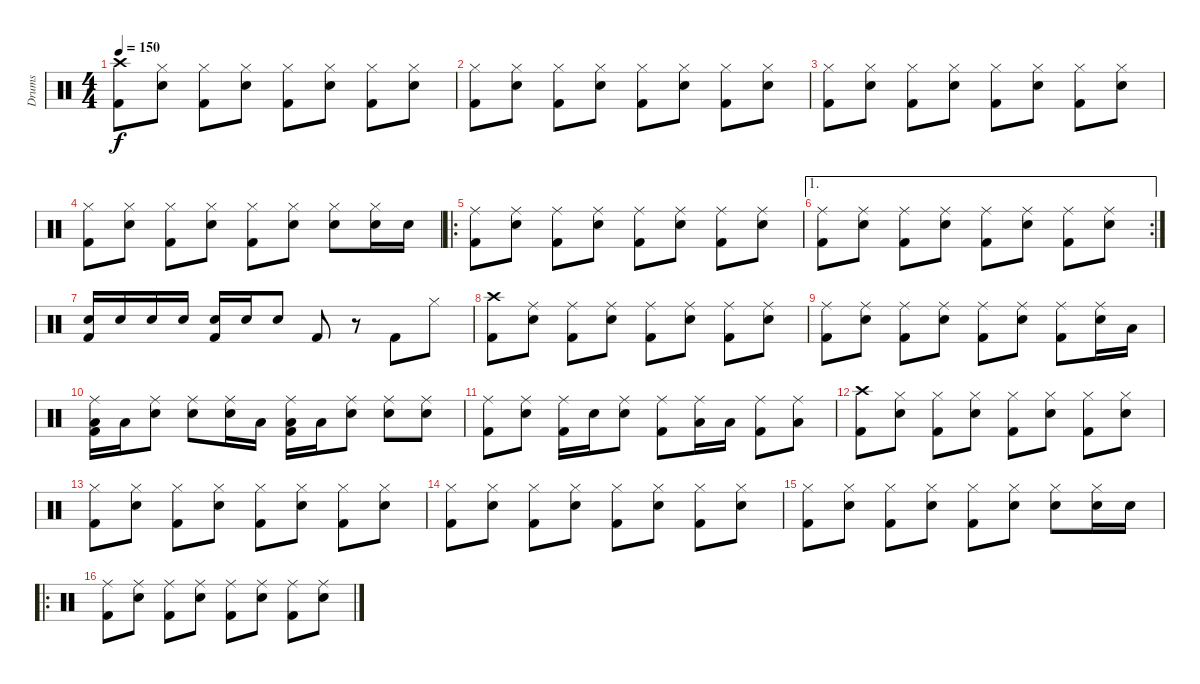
\track ("Drums" "Drums") {instrument percussion}
\staff {score}
\articulation defaults
\ts (4 4)
\tempo 150
\clef neutral
\ks c
("Crash high (hit)" "Kick (hit) 2").8{dy f} ("Hi-Hat (closed)" "Snare (hit) 2").8 ("Hi-Hat (closed)" "Kick (hit) 2").8 ("Hi-Hat (closed)" "Snare (hit) 2").8 ("Hi-Hat (closed)" "Kick (hit) 2").8 ("Hi-Hat (closed)" "Snare (hit) 2").8 ("Hi-Hat (closed)" "Kick (hit) 2").8 ("Hi-Hat (closed)" "Snare (hit) 2").8 |
("Hi-Hat (closed)" "Kick (hit) 2").8 ("Hi-Hat (closed)" "Snare (hit) 2").8 ("Hi-Hat (closed)" "Kick (hit) 2").8 ("Hi-Hat (closed)" "Snare (hit) 2").8 ("Hi-Hat (closed)" "Kick (hit) 2").8 ("Hi-Hat (closed)" "Snare (hit) 2").8 ("Hi-Hat (closed)" "Kick (hit) 2").8 ("Hi-Hat (closed)" "Snare (hit) 2").8 |
("Hi-Hat (closed)" "Kick (hit) 2").8 ("Hi-Hat (closed)" "Snare (hit) 2").8 ("Hi-Hat (closed)" "Kick (hit) 2").8 ("Hi-Hat (closed)" "Snare (hit) 2").8 ("Hi-Hat (closed)" "Kick (hit) 2").8 ("Hi-Hat (closed)" "Snare (hit) 2").8 ("Hi-Hat (closed)" "Kick (hit) 2").8 ("Hi-Hat (closed)" "Snare (hit) 2").8 |
("Hi-Hat (closed)" "Kick (hit) 2").8 ("Hi-Hat (closed)" "Snare (hit) 2").8 ("Hi-Hat (closed)" "Kick (hit) 2").8 ("Hi-Hat (closed)" "Snare (hit) 2").8 ("Hi-Hat (closed)" "Kick (hit) 2").8 ("Hi-Hat (closed)" "Snare (hit) 2").8 ("Hi-Hat (closed)" "Snare (hit) 2").8 ("Hi-Hat (closed)" "Snare (hit) 2").16 "Snare (hit) 2".16 |
\ro
("Ride (middle)" "Kick (hit) 2").8 ("Ride (middle)" "Snare (hit) 2").8 ("Ride (middle)" "Kick (hit) 2").8 ("Ride (middle)" "Snare (hit) 2").8 ("Ride (middle)" "Kick (hit) 2").8 ("Ride (middle)" "Snare (hit) 2").8 ("Ride (middle)" "Kick (hit) 2").8 ("Ride (middle)" "Snare (hit) 2").8 |
\ae 1
\rc 2
("Ride (middle)" "Kick (hit) 2").8 ("Ride (middle)" "Snare (hit) 2").8 ("Ride (middle)" "Kick (hit) 2").8 ("Ride (middle)" "Snare (hit) 2").8 ("Ride (middle)" "Kick (hit) 2").8 ("Ride (middle)" "Snare (hit) 2").8 ("Ride (middle)" "Kick (hit) 2").8 ("Ride (middle)" "Snare (hit) 2").8 |
("Snare (hit) 2" "Kick (hit) 2").16 "Snare (hit) 2".16 "Snare (hit) 2".16 "Snare (hit) 2".16 ("Snare (hit) 2" "Kick (hit) 2").16 "Snare (hit) 2".16 "Snare (hit) 2".8 "Kick (hit) 2".8 r.8 "Kick (hit) 2".8 "Hi-Hat (closed)".8 |
("Crash high (hit)" "Kick (hit) 2").8 ("Ride (middle)" "Snare (hit) 2").8 ("Ride (middle)" "Kick (hit) 2").8 ("Ride (middle)" "Snare (hit) 2").8 ("Ride (middle)" "Kick (hit) 2").8 ("Ride (middle)" "Snare (hit) 2").8 ("Ride (middle)" "Kick (hit) 2").8 ("Ride (middle)" "Snare (hit) 2").8 |
("Ride (middle)" "Kick (hit) 2").8 ("Ride (middle)" "Snare (hit) 2").8 ("Ride (middle)" "Kick (hit) 2").8 ("Ride (middle)" "Snare (hit) 2").8 ("Ride (middle)" "Kick (hit) 2").8 ("Ride (middle)" "Snare (hit) 2").8 ("Ride (middle)" "Kick (hit) 2").8 ("Ride (middle)" "Snare (hit) 2").16 "Low Floor Tom (hit)".16 |
("Ride (middle)" "Low Floor Tom (hit)" "Kick (hit) 2").16 "Low Floor Tom (hit)".16 ("Ride (middle)" "Snare (hit) 2").8 ("Ride (middle)" "Snare (hit) 2").8 ("Ride (middle)" "Snare (hit) 2").16 "Low Floor Tom (hit)".16 ("Ride (middle)" "Low Floor Tom (hit)" "Kick (hit) 2").16 "Low Floor Tom (hit)".16 ("Ride (middle)" "Snare (hit) 2").8 ("Ride (middle)" "Snare (hit) 2").8 ("Ride (middle)" "Snare (hit) 2").8 |
("Ride (middle)" "Kick (hit) 2").8 ("Ride (middle)" "Snare (hit) 2").8 ("Ride (middle)" "Kick (hit) 2").16 "Snare (hit) 2".16 ("Ride (middle)" "Snare (hit) 2").8 ("Ride (middle)" "Kick (hit) 2").8 ("Ride (middle)" "Low Floor Tom (hit)").16 "Low Floor Tom (hit)".16 ("Ride (middle)" "Kick (hit) 2").8 ("Ride (middle)" "Low Floor Tom (hit)").8 |
("Crash high (hit)" "Kick (hit) 2").8 ("Hi-Hat (closed)" "Snare (hit) 2").8 ("Hi-Hat (closed)" "Kick (hit) 2").8 ("Hi-Hat (closed)" "Snare (hit) 2").8 ("Hi-Hat (closed)" "Kick (hit) 2").8 ("Hi-Hat (closed)" "Snare (hit) 2").8 ("Hi-Hat (closed)" "Kick (hit) 2").8 ("Hi-Hat (closed)" "Snare (hit) 2").8 |
("Hi-Hat (closed)" "Kick (hit) 2").8 ("Hi-Hat (closed)" "Snare (hit) 2").8 ("Hi-Hat (closed)" "Kick (hit) 2").8 ("Hi-Hat (closed)" "Snare (hit) 2").8 ("Hi-Hat (closed)" "Kick (hit) 2").8 ("Hi-Hat (closed)" "Snare (hit) 2").8 ("Hi-Hat (closed)" "Kick (hit) 2").8 ("Hi-Hat (closed)" "Snare (hit) 2").8 |
("Hi-Hat (closed)" "Kick (hit) 2").8 ("Hi-Hat (closed)" "Snare (hit) 2").8 ("Hi-Hat (closed)" "Kick (hit) 2").8 ("Hi-Hat (closed)" "Snare (hit) 2").8 ("Hi-Hat (closed)" "Kick (hit) 2").8 ("Hi-Hat (closed)" "Snare (hit) 2").8 ("Hi-Hat (closed)" "Kick (hit) 2").8 ("Hi-Hat (closed)" "Snare (hit) 2").8 |
("Hi-Hat (closed)" "Kick (hit) 2").8 ("Hi-Hat (closed)" "Snare (hit) 2").8 ("Hi-Hat (closed)" "Kick (hit) 2").8 ("Hi-Hat (closed)" "Snare (hit) 2").8 ("Hi-Hat (closed)" "Kick (hit) 2").8 ("Hi-Hat (closed)" "Snare (hit) 2").8 ("Hi-Hat (closed)" "Snare (hit) 2").8 ("Hi-Hat (closed)" "Snare (hit) 2").16 "Snare (hit) 2".16 |
\ro
("Ride (middle)" "Kick (hit) 2").8 ("Ride (middle)" "Snare (hit) 2").8 ("Ride (middle)" "Kick (hit) 2").8 ("Ride (middle)" "Snare (hit) 2").8 ("Ride (middle)" "Kick (hit) 2").8 ("Ride (middle)" "Snare (hit) 2").8 ("Ride (middle)" "Kick (hit) 2").8 ("Ride (middle)" "Snare (hit) 2").8
